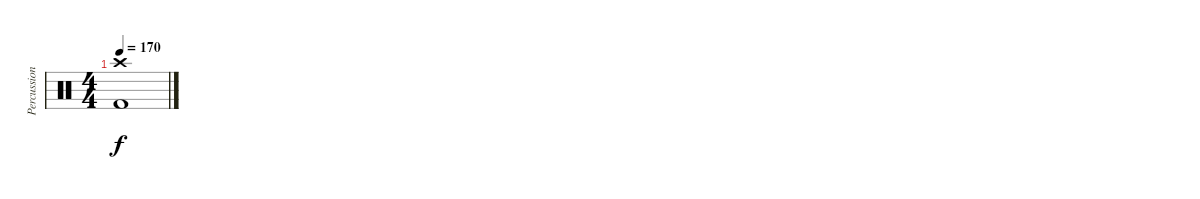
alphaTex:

\track ("Percussion" "Percussion") {instrument percussion}
\staff {score}
\articulation defaults
\ts (4 4)
\tempo 170
\clef neutral
\ks c
("Crash high (hit)" "Kick (hit) 2").1{dy f}
